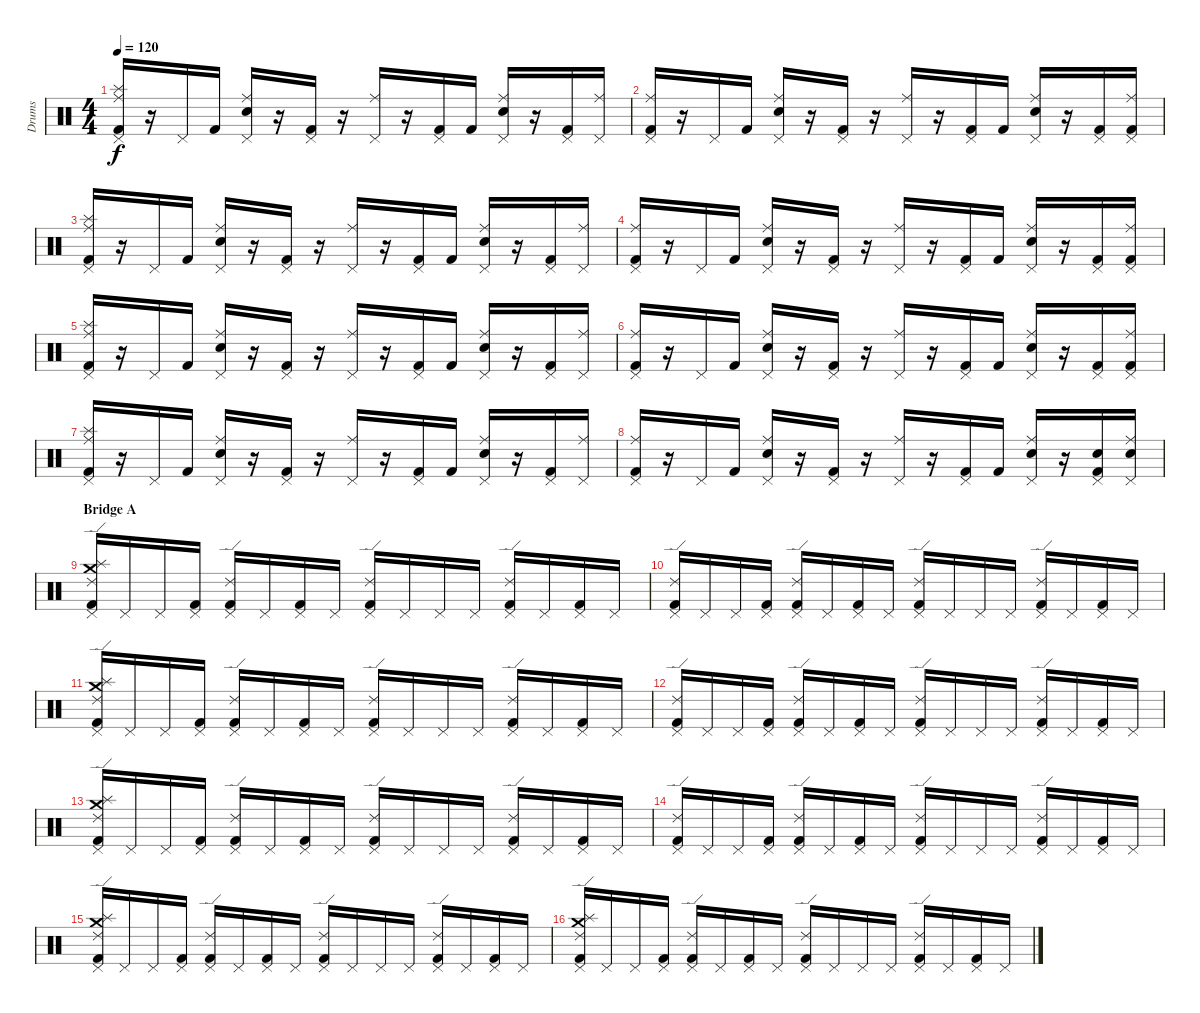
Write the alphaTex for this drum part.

\track ("Drums" "Drums") {instrument percussion}
\staff {score}
\articulation defaults
\ts (4 4)
\tempo 120
\clef neutral
\ks c
("Kick (hit) 2" "Pedal Hi-Hat (hit)" "Splash (hit)" "Ride (middle)").16{dy f} r.16 "Pedal Hi-Hat (hit)".16 "Kick (hit) 2".16 ("Pedal Hi-Hat (hit)" "Snare (hit) 2" "Ride (middle)").16 r.16 ("Kick (hit) 2" "Pedal Hi-Hat (hit)").16 r.16 ("Pedal Hi-Hat (hit)" "Ride (middle)").16 r.16 ("Kick (hit) 2" "Pedal Hi-Hat (hit)").16 "Kick (hit) 2".16 ("Pedal Hi-Hat (hit)" "Snare (hit) 2" "Ride (middle)").16 r.16 ("Kick (hit) 2" "Pedal Hi-Hat (hit)").16 ("Pedal Hi-Hat (hit)" "Ride (middle)").16 |
("Kick (hit) 2" "Pedal Hi-Hat (hit)" "Ride (middle)").16 r.16 "Pedal Hi-Hat (hit)".16 "Kick (hit) 2".16 ("Pedal Hi-Hat (hit)" "Snare (hit) 2" "Ride (middle)").16 r.16 ("Kick (hit) 2" "Pedal Hi-Hat (hit)").16 r.16 ("Pedal Hi-Hat (hit)" "Ride (middle)").16 r.16 ("Kick (hit) 2" "Pedal Hi-Hat (hit)").16 "Kick (hit) 2".16 ("Pedal Hi-Hat (hit)" "Snare (hit) 2" "Ride (middle)").16 r.16 ("Kick (hit) 2" "Pedal Hi-Hat (hit)").16 ("Kick (hit) 2" "Pedal Hi-Hat (hit)" "Ride (middle)").16 |
("Kick (hit) 2" "Pedal Hi-Hat (hit)" "Splash (hit)" "Ride (middle)").16 r.16 "Pedal Hi-Hat (hit)".16 "Kick (hit) 2".16 ("Pedal Hi-Hat (hit)" "Snare (hit) 2" "Ride (middle)").16 r.16 ("Kick (hit) 2" "Pedal Hi-Hat (hit)").16 r.16 ("Pedal Hi-Hat (hit)" "Ride (middle)").16 r.16 ("Kick (hit) 2" "Pedal Hi-Hat (hit)").16 "Kick (hit) 2".16 ("Pedal Hi-Hat (hit)" "Snare (hit) 2" "Ride (middle)").16 r.16 ("Kick (hit) 2" "Pedal Hi-Hat (hit)").16 ("Pedal Hi-Hat (hit)" "Ride (middle)").16 |
("Kick (hit) 2" "Pedal Hi-Hat (hit)" "Ride (middle)").16 r.16 "Pedal Hi-Hat (hit)".16 "Kick (hit) 2".16 ("Pedal Hi-Hat (hit)" "Snare (hit) 2" "Ride (middle)").16 r.16 ("Kick (hit) 2" "Pedal Hi-Hat (hit)").16 r.16 ("Pedal Hi-Hat (hit)" "Ride (middle)").16 r.16 ("Kick (hit) 2" "Pedal Hi-Hat (hit)").16 "Kick (hit) 2".16 ("Pedal Hi-Hat (hit)" "Snare (hit) 2" "Ride (middle)").16 r.16 ("Kick (hit) 2" "Pedal Hi-Hat (hit)").16 ("Kick (hit) 2" "Pedal Hi-Hat (hit)" "Ride (middle)").16 |
("Kick (hit) 2" "Pedal Hi-Hat (hit)" "Splash (hit)" "Ride (middle)").16 r.16 "Pedal Hi-Hat (hit)".16 "Kick (hit) 2".16 ("Pedal Hi-Hat (hit)" "Snare (hit) 2" "Ride (middle)").16 r.16 ("Kick (hit) 2" "Pedal Hi-Hat (hit)").16 r.16 ("Pedal Hi-Hat (hit)" "Ride (middle)").16 r.16 ("Kick (hit) 2" "Pedal Hi-Hat (hit)").16 "Kick (hit) 2".16 ("Pedal Hi-Hat (hit)" "Snare (hit) 2" "Ride (middle)").16 r.16 ("Kick (hit) 2" "Pedal Hi-Hat (hit)").16 ("Pedal Hi-Hat (hit)" "Ride (middle)").16 |
("Kick (hit) 2" "Pedal Hi-Hat (hit)" "Ride (middle)").16 r.16 "Pedal Hi-Hat (hit)".16 "Kick (hit) 2".16 ("Pedal Hi-Hat (hit)" "Snare (hit) 2" "Ride (middle)").16 r.16 ("Kick (hit) 2" "Pedal Hi-Hat (hit)").16 r.16 ("Pedal Hi-Hat (hit)" "Ride (middle)").16 r.16 ("Kick (hit) 2" "Pedal Hi-Hat (hit)").16 "Kick (hit) 2".16 ("Pedal Hi-Hat (hit)" "Snare (hit) 2" "Ride (middle)").16 r.16 ("Kick (hit) 2" "Pedal Hi-Hat (hit)").16 ("Kick (hit) 2" "Pedal Hi-Hat (hit)" "Ride (middle)").16 |
("Kick (hit) 2" "Pedal Hi-Hat (hit)" "Splash (hit)" "Ride (middle)").16 r.16 "Pedal Hi-Hat (hit)".16 "Kick (hit) 2".16 ("Pedal Hi-Hat (hit)" "Snare (hit) 2" "Ride (middle)").16 r.16 ("Kick (hit) 2" "Pedal Hi-Hat (hit)").16 r.16 ("Pedal Hi-Hat (hit)" "Ride (middle)").16 r.16 ("Kick (hit) 2" "Pedal Hi-Hat (hit)").16 "Kick (hit) 2".16 ("Pedal Hi-Hat (hit)" "Snare (hit) 2" "Ride (middle)").16 r.16 ("Kick (hit) 2" "Pedal Hi-Hat (hit)").16 ("Pedal Hi-Hat (hit)" "Ride (middle)").16 |
("Kick (hit) 2" "Pedal Hi-Hat (hit)" "Ride (middle)").16 r.16 "Pedal Hi-Hat (hit)".16 "Kick (hit) 2".16 ("Pedal Hi-Hat (hit)" "Snare (hit) 2" "Ride (middle)").16 r.16 ("Kick (hit) 2" "Pedal Hi-Hat (hit)").16 r.16 ("Pedal Hi-Hat (hit)" "Ride (middle)").16 r.16 ("Kick (hit) 2" "Pedal Hi-Hat (hit)").16 "Kick (hit) 2".16 ("Pedal Hi-Hat (hit)" "Snare (hit) 2" "Ride (middle)").16 r.16 ("Kick (hit) 2" "Pedal Hi-Hat (hit)" "Snare (hit) 2").16 ("Pedal Hi-Hat (hit)" "Snare (hit) 2" "Ride (middle)").16 |
\section ("" "Bridge A")
("Kick (hit) 2" "Crash medium (hit)" "Splash (hit)" "Pedal Hi-Hat (hit)" "Ride (edge) 2").16 "Pedal Hi-Hat (hit)".16 "Pedal Hi-Hat (hit)".16 ("Kick (hit) 2" "Pedal Hi-Hat (hit)").16 ("Kick (hit) 2" "Pedal Hi-Hat (hit)" "Ride (edge) 2").16 "Pedal Hi-Hat (hit)".16 ("Kick (hit) 2" "Pedal Hi-Hat (hit)").16 "Pedal Hi-Hat (hit)".16 ("Kick (hit) 2" "Pedal Hi-Hat (hit)" "Ride (edge) 2").16 "Pedal Hi-Hat (hit)".16 "Pedal Hi-Hat (hit)".16 "Pedal Hi-Hat (hit)".16 ("Kick (hit) 2" "Pedal Hi-Hat (hit)" "Ride (edge) 2").16 "Pedal Hi-Hat (hit)".16 ("Kick (hit) 2" "Pedal Hi-Hat (hit)").16 "Pedal Hi-Hat (hit)".16 |
("Kick (hit) 2" "Pedal Hi-Hat (hit)" "Ride (edge) 2").16 "Pedal Hi-Hat (hit)".16 "Pedal Hi-Hat (hit)".16 ("Kick (hit) 2" "Pedal Hi-Hat (hit)").16 ("Kick (hit) 2" "Pedal Hi-Hat (hit)" "Ride (edge) 2").16 "Pedal Hi-Hat (hit)".16 ("Kick (hit) 2" "Pedal Hi-Hat (hit)").16 "Pedal Hi-Hat (hit)".16 ("Kick (hit) 2" "Pedal Hi-Hat (hit)" "Ride (edge) 2").16 "Pedal Hi-Hat (hit)".16 "Pedal Hi-Hat (hit)".16 "Pedal Hi-Hat (hit)".16 ("Kick (hit) 2" "Pedal Hi-Hat (hit)" "Ride (edge) 2").16 "Pedal Hi-Hat (hit)".16 ("Kick (hit) 2" "Pedal Hi-Hat (hit)").16 "Pedal Hi-Hat (hit)".16 |
("Kick (hit) 2" "Crash medium (hit)" "Splash (hit)" "Pedal Hi-Hat (hit)" "Ride (edge) 2").16 "Pedal Hi-Hat (hit)".16 "Pedal Hi-Hat (hit)".16 ("Kick (hit) 2" "Pedal Hi-Hat (hit)").16 ("Kick (hit) 2" "Pedal Hi-Hat (hit)" "Ride (edge) 2").16 "Pedal Hi-Hat (hit)".16 ("Kick (hit) 2" "Pedal Hi-Hat (hit)").16 "Pedal Hi-Hat (hit)".16 ("Kick (hit) 2" "Pedal Hi-Hat (hit)" "Ride (edge) 2").16 "Pedal Hi-Hat (hit)".16 "Pedal Hi-Hat (hit)".16 "Pedal Hi-Hat (hit)".16 ("Kick (hit) 2" "Pedal Hi-Hat (hit)" "Ride (edge) 2").16 "Pedal Hi-Hat (hit)".16 ("Kick (hit) 2" "Pedal Hi-Hat (hit)").16 "Pedal Hi-Hat (hit)".16 |
("Kick (hit) 2" "Pedal Hi-Hat (hit)" "Ride (edge) 2").16 "Pedal Hi-Hat (hit)".16 "Pedal Hi-Hat (hit)".16 ("Kick (hit) 2" "Pedal Hi-Hat (hit)").16 ("Kick (hit) 2" "Pedal Hi-Hat (hit)" "Ride (edge) 2").16 "Pedal Hi-Hat (hit)".16 ("Kick (hit) 2" "Pedal Hi-Hat (hit)").16 "Pedal Hi-Hat (hit)".16 ("Kick (hit) 2" "Pedal Hi-Hat (hit)" "Ride (edge) 2").16 "Pedal Hi-Hat (hit)".16 "Pedal Hi-Hat (hit)".16 "Pedal Hi-Hat (hit)".16 ("Kick (hit) 2" "Pedal Hi-Hat (hit)" "Ride (edge) 2").16 "Pedal Hi-Hat (hit)".16 ("Kick (hit) 2" "Pedal Hi-Hat (hit)").16 "Pedal Hi-Hat (hit)".16 |
("Kick (hit) 2" "Crash medium (hit)" "Splash (hit)" "Pedal Hi-Hat (hit)" "Ride (edge) 2").16 "Pedal Hi-Hat (hit)".16 "Pedal Hi-Hat (hit)".16 ("Kick (hit) 2" "Pedal Hi-Hat (hit)").16 ("Kick (hit) 2" "Pedal Hi-Hat (hit)" "Ride (edge) 2").16 "Pedal Hi-Hat (hit)".16 ("Kick (hit) 2" "Pedal Hi-Hat (hit)").16 "Pedal Hi-Hat (hit)".16 ("Kick (hit) 2" "Pedal Hi-Hat (hit)" "Ride (edge) 2").16 "Pedal Hi-Hat (hit)".16 "Pedal Hi-Hat (hit)".16 "Pedal Hi-Hat (hit)".16 ("Kick (hit) 2" "Pedal Hi-Hat (hit)" "Ride (edge) 2").16 "Pedal Hi-Hat (hit)".16 ("Kick (hit) 2" "Pedal Hi-Hat (hit)").16 "Pedal Hi-Hat (hit)".16 |
("Kick (hit) 2" "Pedal Hi-Hat (hit)" "Ride (edge) 2").16 "Pedal Hi-Hat (hit)".16 "Pedal Hi-Hat (hit)".16 ("Kick (hit) 2" "Pedal Hi-Hat (hit)").16 ("Kick (hit) 2" "Pedal Hi-Hat (hit)" "Ride (edge) 2").16 "Pedal Hi-Hat (hit)".16 ("Kick (hit) 2" "Pedal Hi-Hat (hit)").16 "Pedal Hi-Hat (hit)".16 ("Kick (hit) 2" "Pedal Hi-Hat (hit)" "Ride (edge) 2").16 "Pedal Hi-Hat (hit)".16 "Pedal Hi-Hat (hit)".16 "Pedal Hi-Hat (hit)".16 ("Kick (hit) 2" "Pedal Hi-Hat (hit)" "Ride (edge) 2").16 "Pedal Hi-Hat (hit)".16 ("Kick (hit) 2" "Pedal Hi-Hat (hit)").16 "Pedal Hi-Hat (hit)".16 |
("Kick (hit) 2" "Crash medium (hit)" "Splash (hit)" "Pedal Hi-Hat (hit)" "Ride (edge) 2").16 "Pedal Hi-Hat (hit)".16 "Pedal Hi-Hat (hit)".16 ("Kick (hit) 2" "Pedal Hi-Hat (hit)").16 ("Kick (hit) 2" "Pedal Hi-Hat (hit)" "Ride (edge) 2").16 "Pedal Hi-Hat (hit)".16 ("Kick (hit) 2" "Pedal Hi-Hat (hit)").16 "Pedal Hi-Hat (hit)".16 ("Kick (hit) 2" "Pedal Hi-Hat (hit)" "Ride (edge) 2").16 "Pedal Hi-Hat (hit)".16 "Pedal Hi-Hat (hit)".16 "Pedal Hi-Hat (hit)".16 ("Kick (hit) 2" "Pedal Hi-Hat (hit)" "Ride (edge) 2").16 "Pedal Hi-Hat (hit)".16 ("Kick (hit) 2" "Pedal Hi-Hat (hit)").16 "Pedal Hi-Hat (hit)".16 |
("Kick (hit) 2" "Crash medium (hit)" "Splash (hit)" "Pedal Hi-Hat (hit)" "Ride (edge) 2").16 "Pedal Hi-Hat (hit)".16 "Pedal Hi-Hat (hit)".16 ("Kick (hit) 2" "Pedal Hi-Hat (hit)").16 ("Kick (hit) 2" "Pedal Hi-Hat (hit)" "Ride (edge) 2").16 "Pedal Hi-Hat (hit)".16 ("Kick (hit) 2" "Pedal Hi-Hat (hit)").16 "Pedal Hi-Hat (hit)".16 ("Kick (hit) 2" "Pedal Hi-Hat (hit)" "Ride (edge) 2").16 "Pedal Hi-Hat (hit)".16 "Pedal Hi-Hat (hit)".16 "Pedal Hi-Hat (hit)".16 ("Kick (hit) 2" "Pedal Hi-Hat (hit)" "Ride (edge) 2").16 "Pedal Hi-Hat (hit)".16 ("Kick (hit) 2" "Pedal Hi-Hat (hit)").16 "Pedal Hi-Hat (hit)".16
